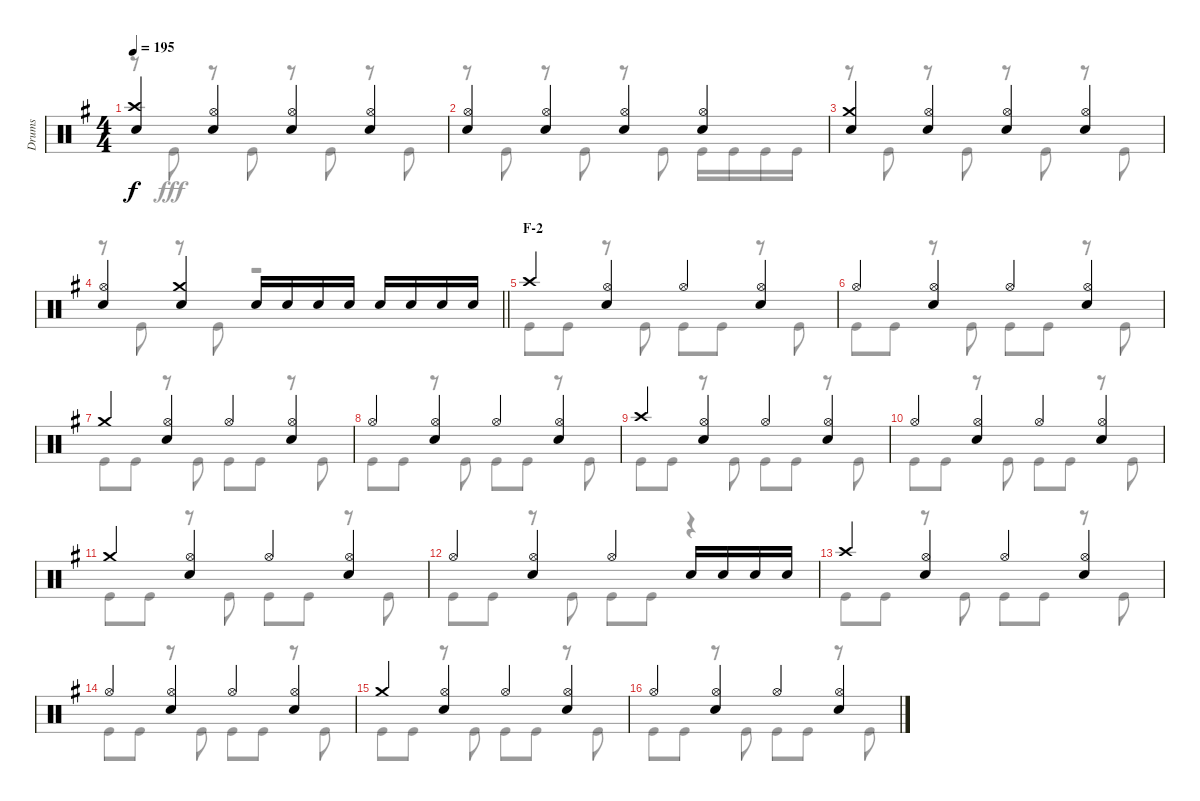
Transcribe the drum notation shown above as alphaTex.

\track ("Drums" "Drums") {instrument percussion}
\staff {score}
\articulation defaults
\voice
\ts (4 4)
\tempo 195
\clef neutral
\ks g
("Crash high (hit)" "Snare (hit) 2").4{dy f} ("Hi-Hat (open)" "Snare (hit) 2").4 ("Hi-Hat (open)" "Snare (hit) 2").4 ("Hi-Hat (open)" "Snare (hit) 2").4 |
("Hi-Hat (open)" "Snare (hit) 2").4 ("Hi-Hat (open)" "Snare (hit) 2").4 ("Hi-Hat (open)" "Snare (hit) 2").4 ("Hi-Hat (open)" "Snare (hit) 2").4 |
("Crash medium (hit)" "Snare (hit) 2").4 ("Hi-Hat (open)" "Snare (hit) 2").4 ("Hi-Hat (open)" "Snare (hit) 2").4 ("Hi-Hat (open)" "Snare (hit) 2").4 |
\barLineRight lightlight
("Hi-Hat (open)" "Snare (hit) 2").4 ("Crash medium (hit)" "Snare (hit) 2").4 "Snare (hit) 2".16 "Snare (hit) 2".16 "Snare (hit) 2".16 "Snare (hit) 2".16 "Snare (hit) 2".16 "Snare (hit) 2".16 "Snare (hit) 2".16 "Snare (hit) 2".16 |
\section ("" "F-2")
"Crash high (hit)".4 ("Hi-Hat (open)" "Snare (hit) 2").4 "Hi-Hat (open)".4 ("Hi-Hat (open)" "Snare (hit) 2").4 |
"Hi-Hat (open)".4 ("Hi-Hat (open)" "Snare (hit) 2").4 "Hi-Hat (open)".4 ("Hi-Hat (open)" "Snare (hit) 2").4 |
"Crash medium (hit)".4 ("Hi-Hat (open)" "Snare (hit) 2").4 "Hi-Hat (open)".4 ("Hi-Hat (open)" "Snare (hit) 2").4 |
"Hi-Hat (open)".4 ("Hi-Hat (open)" "Snare (hit) 2").4 "Hi-Hat (open)".4 ("Hi-Hat (open)" "Snare (hit) 2").4 |
"Crash high (hit)".4 ("Hi-Hat (open)" "Snare (hit) 2").4 "Hi-Hat (open)".4 ("Hi-Hat (open)" "Snare (hit) 2").4 |
"Hi-Hat (open)".4 ("Hi-Hat (open)" "Snare (hit) 2").4 "Hi-Hat (open)".4 ("Hi-Hat (open)" "Snare (hit) 2").4 |
"Crash medium (hit)".4 ("Hi-Hat (open)" "Snare (hit) 2").4 "Hi-Hat (open)".4 ("Hi-Hat (open)" "Snare (hit) 2").4 |
"Hi-Hat (open)".4 ("Hi-Hat (open)" "Snare (hit) 2").4 "Hi-Hat (open)".4 "Snare (hit) 2".16 "Snare (hit) 2".16 "Snare (hit) 2".16 "Snare (hit) 2".16 |
"Crash high (hit)".4 ("Hi-Hat (open)" "Snare (hit) 2").4 "Hi-Hat (open)".4 ("Hi-Hat (open)" "Snare (hit) 2").4 |
"Hi-Hat (open)".4 ("Hi-Hat (open)" "Snare (hit) 2").4 "Hi-Hat (open)".4 ("Hi-Hat (open)" "Snare (hit) 2").4 |
"Crash medium (hit)".4 ("Hi-Hat (open)" "Snare (hit) 2").4 "Hi-Hat (open)".4 ("Hi-Hat (open)" "Snare (hit) 2").4 |
"Hi-Hat (open)".4 ("Hi-Hat (open)" "Snare (hit) 2").4 "Hi-Hat (open)".4 ("Hi-Hat (open)" "Snare (hit) 2").4
\voice
\clef neutral
\ottava regular
\simile none
\ks g
r.8{dy fff} "Kick (hit)".8 r.8 "Kick (hit)".8 r.8 "Kick (hit)".8 r.8 "Kick (hit)".8 |
r.8 "Kick (hit)".8 r.8 "Kick (hit)".8 r.8 "Kick (hit)".8 "Kick (hit)".16 "Kick (hit)".16 "Kick (hit)".16 "Kick (hit)".16 |
r.8 "Kick (hit)".8 r.8 "Kick (hit)".8 r.8 "Kick (hit)".8 r.8 "Kick (hit)".8 |
\barLineRight lightlight
r.8 "Kick (hit)".8 r.8 "Kick (hit)".8 r.2 |
"Kick (hit)".8 "Kick (hit)".8 r.8 "Kick (hit)".8 "Kick (hit)".8 "Kick (hit)".8 r.8 "Kick (hit)".8 |
"Kick (hit)".8 "Kick (hit)".8 r.8 "Kick (hit)".8 "Kick (hit)".8 "Kick (hit)".8 r.8 "Kick (hit)".8 |
"Kick (hit)".8 "Kick (hit)".8 r.8 "Kick (hit)".8 "Kick (hit)".8 "Kick (hit)".8 r.8 "Kick (hit)".8 |
"Kick (hit)".8 "Kick (hit)".8 r.8 "Kick (hit)".8 "Kick (hit)".8 "Kick (hit)".8 r.8 "Kick (hit)".8 |
"Kick (hit)".8 "Kick (hit)".8 r.8 "Kick (hit)".8 "Kick (hit)".8 "Kick (hit)".8 r.8 "Kick (hit)".8 |
"Kick (hit)".8 "Kick (hit)".8 r.8 "Kick (hit)".8 "Kick (hit)".8 "Kick (hit)".8 r.8 "Kick (hit)".8 |
"Kick (hit)".8 "Kick (hit)".8 r.8 "Kick (hit)".8 "Kick (hit)".8 "Kick (hit)".8 r.8 "Kick (hit)".8 |
"Kick (hit)".8 "Kick (hit)".8 r.8 "Kick (hit)".8 "Kick (hit)".8 "Kick (hit)".8 r.4 |
"Kick (hit)".8 "Kick (hit)".8 r.8 "Kick (hit)".8 "Kick (hit)".8 "Kick (hit)".8 r.8 "Kick (hit)".8 |
"Kick (hit)".8 "Kick (hit)".8 r.8 "Kick (hit)".8 "Kick (hit)".8 "Kick (hit)".8 r.8 "Kick (hit)".8 |
"Kick (hit)".8 "Kick (hit)".8 r.8 "Kick (hit)".8 "Kick (hit)".8 "Kick (hit)".8 r.8 "Kick (hit)".8 |
"Kick (hit)".8 "Kick (hit)".8 r.8 "Kick (hit)".8 "Kick (hit)".8 "Kick (hit)".8 r.8 "Kick (hit)".8
